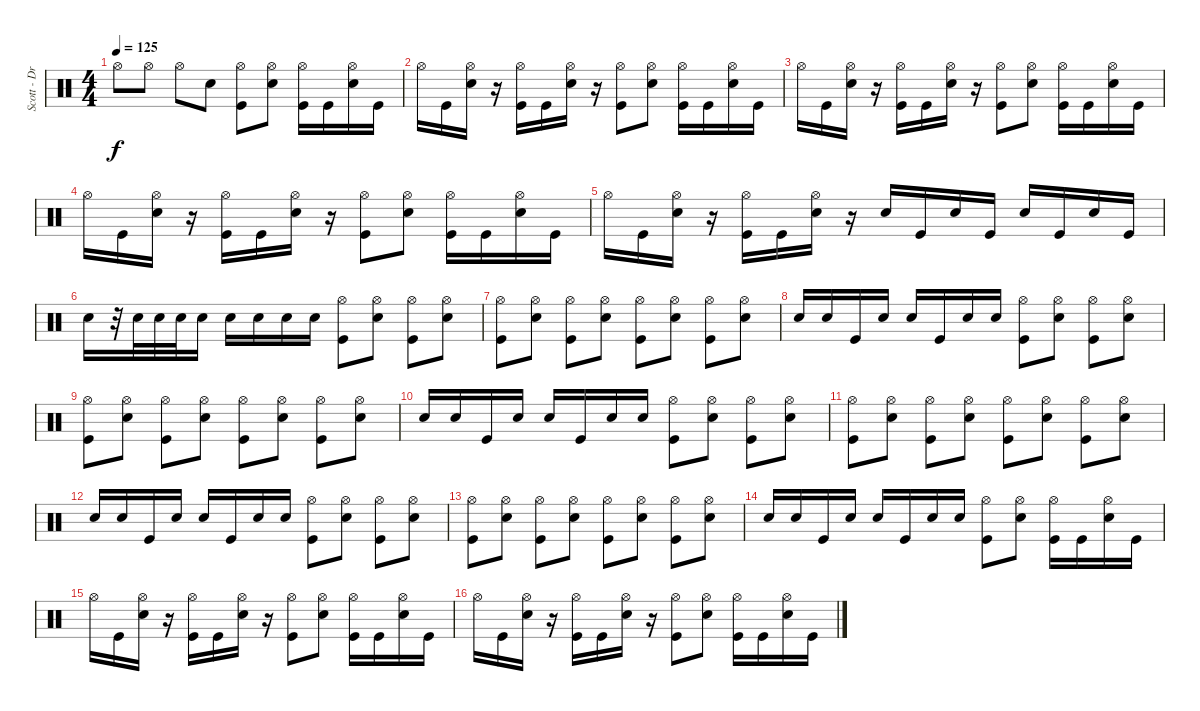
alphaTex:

\track ("Scott - Drums" "Scott - Dr") {instrument percussion}
\staff {score}
\articulation defaults
\ts (4 4)
\tempo 125
\clef neutral
\ks c "Hi-Hat (open)".8{dy f} "Hi-Hat (open)".8 "Hi-Hat (open)".8 "Snare (hit) 2".8
("Hi-Hat (open)" "Kick (hit)").8 ("Hi-Hat (open)" "Snare (hit) 2").8 ("Hi-Hat (open)" "Kick (hit)").16 "Kick (hit)".16 ("Hi-Hat (open)" "Snare (hit) 2").16 "Kick (hit)".16 |
"Hi-Hat (open)".16 "Kick (hit)".16 ("Hi-Hat (open)" "Snare (hit) 2").16 r.16 ("Hi-Hat (open)" "Kick (hit)").16 "Kick (hit)".16 ("Hi-Hat (open)" "Snare (hit) 2").16 r.16 ("Hi-Hat (open)" "Kick (hit)").8 ("Hi-Hat (open)" "Snare (hit) 2").8 ("Hi-Hat (open)" "Kick (hit)").16 "Kick (hit)".16 ("Hi-Hat (open)" "Snare (hit) 2").16 "Kick (hit)".16 |
"Hi-Hat (open)".16 "Kick (hit)".16 ("Hi-Hat (open)" "Snare (hit) 2").16 r.16 ("Hi-Hat (open)" "Kick (hit)").16 "Kick (hit)".16 ("Hi-Hat (open)" "Snare (hit) 2").16 r.16 ("Hi-Hat (open)" "Kick (hit)").8 ("Hi-Hat (open)" "Snare (hit) 2").8 ("Hi-Hat (open)" "Kick (hit)").16 "Kick (hit)".16 ("Hi-Hat (open)" "Snare (hit) 2").16 "Kick (hit)".16 |
"Hi-Hat (open)".16 "Kick (hit)".16 ("Hi-Hat (open)" "Snare (hit) 2").16 r.16 ("Hi-Hat (open)" "Kick (hit)").16 "Kick (hit)".16 ("Hi-Hat (open)" "Snare (hit) 2").16 r.16 ("Hi-Hat (open)" "Kick (hit)").8 ("Hi-Hat (open)" "Snare (hit) 2").8 ("Hi-Hat (open)" "Kick (hit)").16 "Kick (hit)".16 ("Hi-Hat (open)" "Snare (hit) 2").16 "Kick (hit)".16 |
"Hi-Hat (open)".16 "Kick (hit)".16 ("Hi-Hat (open)" "Snare (hit) 2").16 r.16 ("Hi-Hat (open)" "Kick (hit)").16 "Kick (hit)".16 ("Hi-Hat (open)" "Snare (hit) 2").16 r.16 "Snare (hit) 2".16 "Kick (hit)".16 "Snare (hit) 2".16 "Kick (hit)".16 "Snare (hit) 2".16 "Kick (hit)".16 "Snare (hit) 2".16 "Kick (hit)".16 |
"Snare (hit) 2".16 r.32 "Snare (hit) 2".32 "Snare (hit) 2".32 "Snare (hit) 2".32 "Snare (hit) 2".16 "Snare (hit) 2".16 "Snare (hit) 2".16 "Snare (hit) 2".16 "Snare (hit) 2".16 ("Hi-Hat (open)" "Kick (hit)").8 ("Hi-Hat (open)" "Snare (hit) 2").8 ("Hi-Hat (open)" "Kick (hit)").8 ("Hi-Hat (open)" "Snare (hit) 2").8 |
("Hi-Hat (open)" "Kick (hit)").8 ("Hi-Hat (open)" "Snare (hit) 2").8 ("Hi-Hat (open)" "Kick (hit)").8 ("Hi-Hat (open)" "Snare (hit) 2").8 ("Hi-Hat (open)" "Kick (hit)").8 ("Hi-Hat (open)" "Snare (hit) 2").8 ("Hi-Hat (open)" "Kick (hit)").8 ("Hi-Hat (open)" "Snare (hit) 2").8 |
"Snare (hit) 2".16 "Snare (hit) 2".16 "Kick (hit)".16 "Snare (hit) 2".16 "Snare (hit) 2".16 "Kick (hit)".16 "Snare (hit) 2".16 "Snare (hit) 2".16 ("Hi-Hat (open)" "Kick (hit)").8 ("Hi-Hat (open)" "Snare (hit) 2").8 ("Hi-Hat (open)" "Kick (hit)").8 ("Hi-Hat (open)" "Snare (hit) 2").8 |
("Hi-Hat (open)" "Kick (hit)").8 ("Hi-Hat (open)" "Snare (hit) 2").8 ("Hi-Hat (open)" "Kick (hit)").8 ("Hi-Hat (open)" "Snare (hit) 2").8 ("Hi-Hat (open)" "Kick (hit)").8 ("Hi-Hat (open)" "Snare (hit) 2").8 ("Hi-Hat (open)" "Kick (hit)").8 ("Hi-Hat (open)" "Snare (hit) 2").8 |
"Snare (hit) 2".16 "Snare (hit) 2".16 "Kick (hit)".16 "Snare (hit) 2".16 "Snare (hit) 2".16 "Kick (hit)".16 "Snare (hit) 2".16 "Snare (hit) 2".16 ("Hi-Hat (open)" "Kick (hit)").8 ("Hi-Hat (open)" "Snare (hit) 2").8 ("Hi-Hat (open)" "Kick (hit)").8 ("Hi-Hat (open)" "Snare (hit) 2").8 |
("Hi-Hat (open)" "Kick (hit)").8 ("Hi-Hat (open)" "Snare (hit) 2").8 ("Hi-Hat (open)" "Kick (hit)").8 ("Hi-Hat (open)" "Snare (hit) 2").8 ("Hi-Hat (open)" "Kick (hit)").8 ("Hi-Hat (open)" "Snare (hit) 2").8 ("Hi-Hat (open)" "Kick (hit)").8 ("Hi-Hat (open)" "Snare (hit) 2").8 |
"Snare (hit) 2".16 "Snare (hit) 2".16 "Kick (hit)".16 "Snare (hit) 2".16 "Snare (hit) 2".16 "Kick (hit)".16 "Snare (hit) 2".16 "Snare (hit) 2".16 ("Hi-Hat (open)" "Kick (hit)").8 ("Hi-Hat (open)" "Snare (hit) 2").8 ("Hi-Hat (open)" "Kick (hit)").8 ("Hi-Hat (open)" "Snare (hit) 2").8 |
("Hi-Hat (open)" "Kick (hit)").8 ("Hi-Hat (open)" "Snare (hit) 2").8 ("Hi-Hat (open)" "Kick (hit)").8 ("Hi-Hat (open)" "Snare (hit) 2").8 ("Hi-Hat (open)" "Kick (hit)").8 ("Hi-Hat (open)" "Snare (hit) 2").8 ("Hi-Hat (open)" "Kick (hit)").8 ("Hi-Hat (open)" "Snare (hit) 2").8 |
"Snare (hit) 2".16 "Snare (hit) 2".16 "Kick (hit)".16 "Snare (hit) 2".16 "Snare (hit) 2".16 "Kick (hit)".16 "Snare (hit) 2".16 "Snare (hit) 2".16 ("Hi-Hat (open)" "Kick (hit)").8 ("Hi-Hat (open)" "Snare (hit) 2").8 ("Hi-Hat (open)" "Kick (hit)").16 "Kick (hit)".16 ("Hi-Hat (open)" "Snare (hit) 2").16 "Kick (hit)".16 |
"Hi-Hat (open)".16 "Kick (hit)".16 ("Hi-Hat (open)" "Snare (hit) 2").16 r.16 ("Hi-Hat (open)" "Kick (hit)").16 "Kick (hit)".16 ("Hi-Hat (open)" "Snare (hit) 2").16 r.16 ("Hi-Hat (open)" "Kick (hit)").8 ("Hi-Hat (open)" "Snare (hit) 2").8 ("Hi-Hat (open)" "Kick (hit)").16 "Kick (hit)".16 ("Hi-Hat (open)" "Snare (hit) 2").16 "Kick (hit)".16 |
"Hi-Hat (open)".16 "Kick (hit)".16 ("Hi-Hat (open)" "Snare (hit) 2").16 r.16 ("Hi-Hat (open)" "Kick (hit)").16 "Kick (hit)".16 ("Hi-Hat (open)" "Snare (hit) 2").16 r.16 ("Hi-Hat (open)" "Kick (hit)").8 ("Hi-Hat (open)" "Snare (hit) 2").8 ("Hi-Hat (open)" "Kick (hit)").16 "Kick (hit)".16 ("Hi-Hat (open)" "Snare (hit) 2").16 "Kick (hit)".16
